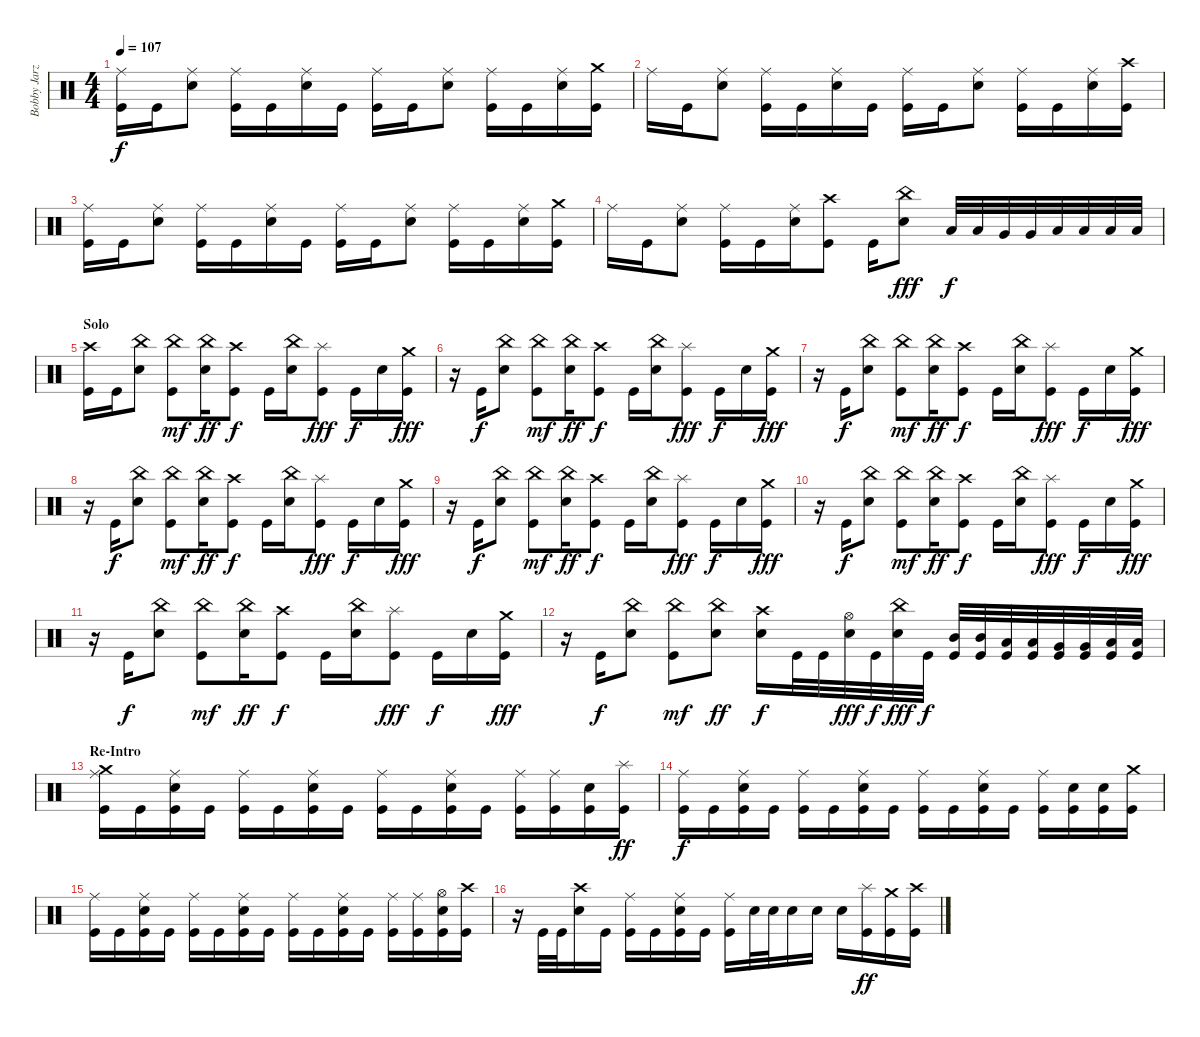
\track ("Bobby Jarzombek" "Bobby Jarz") {instrument percussion}
\staff {score}
\articulation defaults
\ts (4 4)
\tempo 107
\clef neutral
\ks c
("Ride (middle)" "Kick (hit)").16{dy f} "Kick (hit)".16 ("Ride (middle)" "Electric Snare (hit)").8 ("Ride (middle)" "Kick (hit)").16 "Kick (hit)".16 ("Ride (middle)" "Electric Snare (hit)").16 "Kick (hit)".16 ("Ride (middle)" "Kick (hit)").16 "Kick (hit)".16 ("Ride (middle)" "Electric Snare (hit)").8 ("Ride (middle)" "Kick (hit)").16 "Kick (hit)".16 ("Ride (middle)" "Electric Snare (hit)").16 ("Crash medium (hit)" "Kick (hit)").16 |
"Ride (middle)".16 "Kick (hit)".16 ("Ride (middle)" "Electric Snare (hit)").8 ("Ride (middle)" "Kick (hit)").16 "Kick (hit)".16 ("Ride (middle)" "Electric Snare (hit)").16 "Kick (hit)".16 ("Ride (middle)" "Kick (hit)").16 "Kick (hit)".16 ("Ride (middle)" "Electric Snare (hit)").8 ("Ride (middle)" "Kick (hit)").16 "Kick (hit)".16 ("Ride (middle)" "Electric Snare (hit)").16 ("Crash high (hit)" "Kick (hit)").16 |
("Ride (middle)" "Kick (hit)").16 "Kick (hit)".16 ("Ride (middle)" "Electric Snare (hit)").8 ("Ride (middle)" "Kick (hit)").16 "Kick (hit)".16 ("Ride (middle)" "Electric Snare (hit)").16 "Kick (hit)".16 ("Ride (middle)" "Kick (hit)").16 "Kick (hit)".16 ("Ride (middle)" "Electric Snare (hit)").8 ("Ride (middle)" "Kick (hit)").16 "Kick (hit)".16 ("Ride (middle)" "Electric Snare (hit)").16 ("Crash medium (hit)" "Kick (hit)").16 |
"Ride (middle)".16 "Kick (hit)".16 ("Ride (middle)" "Electric Snare (hit)").8 ("Ride (middle)" "Kick (hit)").16 "Kick (hit)".16 ("Ride (middle)" "Electric Snare (hit)").16 ("Crash high (hit)" "Kick (hit)").8 "Kick (hit)".16 ("China (hit)" "Electric Snare (hit)").8{dy fff} "Low Tom (hit)".32{dy f} "Low Tom (hit)".32 "Very Low Tom (hit)".32 "Very Low Tom (hit)".32 "Low Floor Tom (hit)".32 "Low Floor Tom (hit)".32 "Low Floor Tom (hit)".32 "Low Floor Tom (hit)".32 |
\section ("" "Solo")
("Crash high (hit)" "Kick (hit)").16 "Kick (hit)".16 ("China (hit)" "Electric Snare (hit)").8 ("China (hit)" "Kick (hit)").8{dy mf} ("China (hit)" "Electric Snare (hit)").16{dy ff} ("Crash high (hit)" "Kick (hit)").8{dy f} "Kick (hit)".16 ("China (hit)" "Electric Snare (hit)").16 ("Splash (hit)" "Kick (hit)").8{dy fff} "Kick (hit)".16{dy f} "Electric Snare (hit)".16 ("Crash medium (hit)" "Kick (hit)").16{dy fff} |
r.16 "Kick (hit)".16{dy f} ("China (hit)" "Electric Snare (hit)").8 ("China (hit)" "Kick (hit)").8{dy mf} ("China (hit)" "Electric Snare (hit)").16{dy ff} ("Crash high (hit)" "Kick (hit)").8{dy f} "Kick (hit)".16 ("China (hit)" "Electric Snare (hit)").16 ("Splash (hit)" "Kick (hit)").8{dy fff} "Kick (hit)".16{dy f} "Electric Snare (hit)".16 ("Crash medium (hit)" "Kick (hit)").16{dy fff} |
r.16 "Kick (hit)".16{dy f} ("China (hit)" "Electric Snare (hit)").8 ("China (hit)" "Kick (hit)").8{dy mf} ("China (hit)" "Electric Snare (hit)").16{dy ff} ("Crash high (hit)" "Kick (hit)").8{dy f} "Kick (hit)".16 ("China (hit)" "Electric Snare (hit)").16 ("Splash (hit)" "Kick (hit)").8{dy fff} "Kick (hit)".16{dy f} "Electric Snare (hit)".16 ("Crash medium (hit)" "Kick (hit)").16{dy fff} |
r.16 "Kick (hit)".16{dy f} ("China (hit)" "Electric Snare (hit)").8 ("China (hit)" "Kick (hit)").8{dy mf} ("China (hit)" "Electric Snare (hit)").16{dy ff} ("Crash high (hit)" "Kick (hit)").8{dy f} "Kick (hit)".16 ("China (hit)" "Electric Snare (hit)").16 ("Splash (hit)" "Kick (hit)").8{dy fff} "Kick (hit)".16{dy f} "Electric Snare (hit)".16 ("Crash medium (hit)" "Kick (hit)").16{dy fff} |
r.16 "Kick (hit)".16{dy f} ("China (hit)" "Electric Snare (hit)").8 ("China (hit)" "Kick (hit)").8{dy mf} ("China (hit)" "Electric Snare (hit)").16{dy ff} ("Crash high (hit)" "Kick (hit)").8{dy f} "Kick (hit)".16 ("China (hit)" "Electric Snare (hit)").16 ("Splash (hit)" "Kick (hit)").8{dy fff} "Kick (hit)".16{dy f} "Electric Snare (hit)".16 ("Crash medium (hit)" "Kick (hit)").16{dy fff} |
r.16 "Kick (hit)".16{dy f} ("China (hit)" "Electric Snare (hit)").8 ("China (hit)" "Kick (hit)").8{dy mf} ("China (hit)" "Electric Snare (hit)").16{dy ff} ("Crash high (hit)" "Kick (hit)").8{dy f} "Kick (hit)".16 ("China (hit)" "Electric Snare (hit)").16 ("Splash (hit)" "Kick (hit)").8{dy fff} "Kick (hit)".16{dy f} "Electric Snare (hit)".16 ("Crash medium (hit)" "Kick (hit)").16{dy fff} |
r.16 "Kick (hit)".16{dy f} ("China (hit)" "Electric Snare (hit)").8 ("China (hit)" "Kick (hit)").8{dy mf} ("China (hit)" "Electric Snare (hit)").16{dy ff} ("Crash high (hit)" "Kick (hit)").8{dy f} "Kick (hit)".16 ("China (hit)" "Electric Snare (hit)").16 ("Splash (hit)" "Kick (hit)").8{dy fff} "Kick (hit)".16{dy f} "Electric Snare (hit)".16 ("Crash medium (hit)" "Kick (hit)").16{dy fff} |
r.16 "Kick (hit)".16{dy f} ("China (hit)" "Electric Snare (hit)").8 ("China (hit)" "Kick (hit)").8{dy mf} ("China (hit)" "Electric Snare (hit)").8{dy ff} ("Crash high (hit)" "Electric Snare (hit)").16{dy f} "Kick (hit)".32 "Kick (hit)".32 ("Hi-Hat (open)" "Electric Snare (hit)").32{dy fff} "Kick (hit)".32{dy f} ("China (hit)" "Electric Snare (hit)").32{dy fff} "Kick (hit)".32{dy f} ("Mid Tom (hit)" "Kick (hit)").32 ("Mid Tom (hit)" "Kick (hit)").32 ("Low Tom (hit)" "Kick (hit)").32 ("Low Tom (hit)" "Kick (hit)").32 ("Very Low Tom (hit)" "Kick (hit)").32 ("Very Low Tom (hit)" "Kick (hit)").32 ("Low Floor Tom (hit)" "Kick (hit)").32 ("Low Floor Tom (hit)" "Kick (hit)").32 |
\section ("" "Re-Intro")
("Kick (hit)" "Ride (middle)" "Crash medium (hit)").16 "Kick (hit)".16 ("Kick (hit)" "Ride (middle)" "Electric Snare (hit)").16 "Kick (hit)".16 ("Kick (hit)" "Ride (middle)").16 "Kick (hit)".16 ("Kick (hit)" "Ride (middle)" "Electric Snare (hit)").16 "Kick (hit)".16 ("Kick (hit)" "Ride (middle)").16 "Kick (hit)".16 ("Kick (hit)" "Ride (middle)" "Electric Snare (hit)").16 "Kick (hit)".16 ("Kick (hit)" "Ride (middle)").16 ("Kick (hit)" "Ride (middle)").16 ("Kick (hit)" "Electric Snare (hit)").16 ("Kick (hit)" "Splash (hit)").16{dy ff} |
("Kick (hit)" "Ride (middle)").16{dy f} "Kick (hit)".16 ("Kick (hit)" "Ride (middle)" "Electric Snare (hit)").16 "Kick (hit)".16 ("Kick (hit)" "Ride (middle)").16 "Kick (hit)".16 ("Kick (hit)" "Ride (middle)" "Electric Snare (hit)").16 "Kick (hit)".16 ("Kick (hit)" "Ride (middle)").16 "Kick (hit)".16 ("Kick (hit)" "Ride (middle)" "Electric Snare (hit)").16 "Kick (hit)".16 ("Kick (hit)" "Ride (middle)").16 ("Kick (hit)" "Electric Snare (hit)").16 ("Kick (hit)" "Electric Snare (hit)").16 ("Kick (hit)" "Crash medium (hit)").16 |
("Kick (hit)" "Ride (middle)").16 "Kick (hit)".16 ("Kick (hit)" "Ride (middle)" "Electric Snare (hit)").16 "Kick (hit)".16 ("Kick (hit)" "Ride (middle)").16 "Kick (hit)".16 ("Kick (hit)" "Ride (middle)" "Electric Snare (hit)").16 "Kick (hit)".16 ("Kick (hit)" "Ride (middle)").16 "Kick (hit)".16 ("Kick (hit)" "Ride (middle)" "Electric Snare (hit)").16 "Kick (hit)".16 ("Kick (hit)" "Ride (middle)").16 ("Kick (hit)" "Ride (middle)").16 ("Kick (hit)" "Hi-Hat (open)" "Electric Snare (hit)").16 ("Kick (hit)" "Crash high (hit)").16 |
r.16 "Kick (hit)".32 "Kick (hit)".32 ("Crash high (hit)" "Electric Snare (hit)").16 "Kick (hit)".16 ("Kick (hit)" "Ride (middle)").16 "Kick (hit)".16 ("Kick (hit)" "Ride (middle)" "Electric Snare (hit)").16 "Kick (hit)".16 ("Kick (hit)" "Ride (middle)").16 "Electric Snare (hit)".32 "Electric Snare (hit)".32 "Electric Snare (hit)".16 "Electric Snare (hit)".16 "Electric Snare (hit)".16 ("Splash (hit)" "Kick (hit)").16{dy ff} ("Crash medium (hit)" "Kick (hit)").16 ("Crash high (hit)" "Kick (hit)").16
